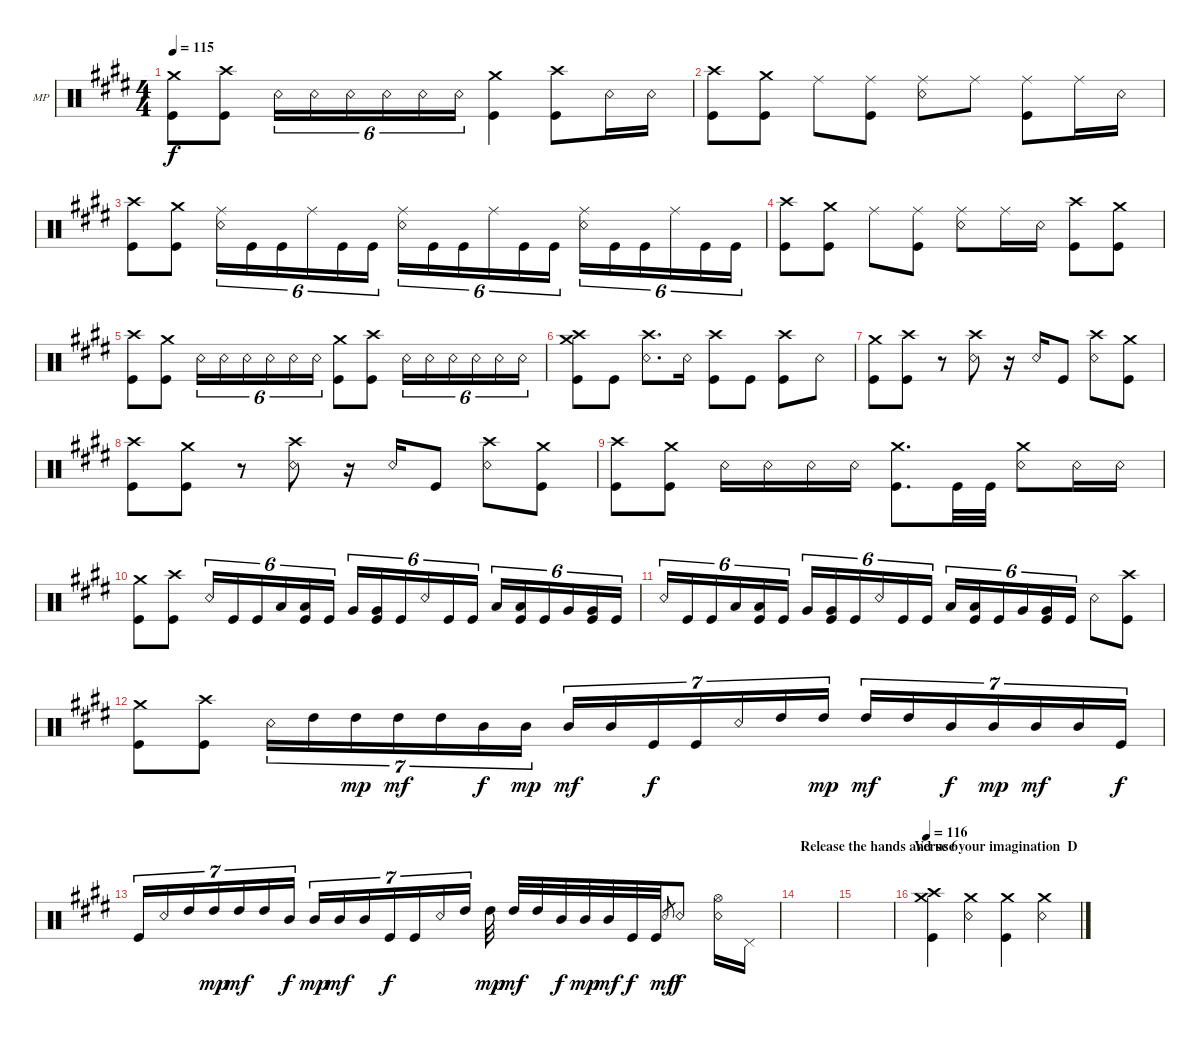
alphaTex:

\defaultSystemsLayout 4
\bracketExtendMode groupsimilarinstruments
\firstSystemTrackNameOrientation horizontal
\otherSystemsTrackNameOrientation horizontal
\track ("Mike Portnoy" "MP") {instrument percussion}
\staff {score}
\articulation defaults
\ts (4 4)
\tempo 115
\clef neutral
\ks e
("Crash medium (hit)" "Kick (hit)").8{dy f} ("Crash high (hit)" "Kick (hit)").8 "Snare (rim shot)".16{tu (6 4)} "Snare (rim shot)".16{tu (6 4)} "Snare (rim shot)".16{tu (6 4)} "Snare (rim shot)".16{tu (6 4)} "Snare (rim shot)".16{tu (6 4)} "Snare (rim shot)".16{tu (6 4)} ("Crash medium (hit)" "Kick (hit)").4 ("Crash high (hit)" "Kick (hit)").8 "Snare (rim shot)".16 "Snare (rim shot)".16 |
("Crash high (hit)" "Kick (hit)").8 ("Crash medium (hit)" "Kick (hit)").8 "Ride (middle)".8 ("Ride (middle)" "Kick (hit)").8 ("Ride (middle)" "Snare (rim shot)").8 "Ride (middle)".8 ("Ride (middle)" "Kick (hit)").8 "Ride (middle)".16 "Snare (rim shot)".16 |
("Crash high (hit)" "Kick (hit)").8 ("Crash medium (hit)" "Kick (hit)").8 ("Ride (middle)" "Snare (rim shot)").16{tu (6 4)} "Kick (hit)".16{tu (6 4)} "Kick (hit)".16{tu (6 4)} "Ride (middle)".16{tu (6 4)} "Kick (hit)".16{tu (6 4)} "Kick (hit)".16{tu (6 4)} ("Ride (middle)" "Snare (rim shot)").16{tu (6 4)} "Kick (hit)".16{tu (6 4)} "Kick (hit)".16{tu (6 4)} "Ride (middle)".16{tu (6 4)} "Kick (hit)".16{tu (6 4)} "Kick (hit)".16{tu (6 4)} ("Ride (middle)" "Snare (rim shot)").16{tu (6 4)} "Kick (hit)".16{tu (6 4)} "Kick (hit)".16{tu (6 4)} "Ride (middle)".16{tu (6 4)} "Kick (hit)".16{tu (6 4)} "Kick (hit)".16{tu (6 4)} |
("Crash high (hit)" "Kick (hit)").8 ("Crash medium (hit)" "Kick (hit)").8 "Ride (middle)".8 ("Ride (middle)" "Kick (hit)").8 ("Ride (middle)" "Snare (rim shot)").8 "Ride (middle)".16 "Snare (rim shot)".16 ("Crash high (hit)" "Kick (hit)").8 ("Crash medium (hit)" "Kick (hit)").8 |
("Crash high (hit)" "Kick (hit)").8 ("Crash medium (hit)" "Kick (hit)").8 "Snare (rim shot)".16{tu (6 4)} "Snare (rim shot)".16{tu (6 4)} "Snare (rim shot)".16{tu (6 4)} "Snare (rim shot)".16{tu (6 4)} "Snare (rim shot)".16{tu (6 4)} "Snare (rim shot)".16{tu (6 4)} ("Crash medium (hit)" "Kick (hit)").8 ("Crash high (hit)" "Kick (hit)").8 "Snare (rim shot)".16{tu (6 4)} "Snare (rim shot)".16{tu (6 4)} "Snare (rim shot)".16{tu (6 4)} "Snare (rim shot)".16{tu (6 4)} "Snare (rim shot)".16{tu (6 4)} "Snare (rim shot)".16{tu (6 4)} |
("Crash high (hit)" "Crash medium (hit)" "Kick (hit)").8 "Kick (hit)".8 ("Crash high (hit)" "Snare (rim shot)").8{d} "Snare (rim shot)".16 ("Crash high (hit)" "Kick (hit)").8 "Kick (hit)".8 ("Crash high (hit)" "Kick (hit)").8 "Snare (rim shot)".8 |
("Crash medium (hit)" "Kick (hit)").8 ("Crash high (hit)" "Kick (hit)").8 r.8 ("Crash high (hit)" "Snare (rim shot)").8 r.16 "Snare (rim shot)".16 "Kick (hit)".8 ("Crash high (hit)" "Snare (rim shot)").8 ("Crash medium (hit)" "Kick (hit)").8 |
("Crash high (hit)" "Kick (hit)").8 ("Crash medium (hit)" "Kick (hit)").8 r.8 ("Crash high (hit)" "Snare (rim shot)").8 r.16 "Snare (rim shot)".16 "Kick (hit)".8 ("Crash high (hit)" "Snare (rim shot)").8 ("Crash medium (hit)" "Kick (hit)").8 |
("Crash high (hit)" "Kick (hit)").8 ("Crash medium (hit)" "Kick (hit)").8 "Snare (rim shot)".16 "Snare (rim shot)".16 "Snare (rim shot)".16 "Snare (rim shot)".16 ("Crash medium (hit)" "Kick (hit)").8{d} "Kick (hit)".32 "Kick (hit)".32 ("Crash medium (hit)" "Snare (rim shot)").8 "Snare (rim shot)".16 "Snare (rim shot)".16 |
("Crash medium (hit)" "Kick (hit)").8 ("Crash high (hit)" "Kick (hit)").8 "Snare (rim shot)".16{tu (6 4)} "Kick (hit)".16{tu (6 4)} "Kick (hit)".16{tu (6 4)} "Low Tom (hit)".16{tu (6 4)} ("Low Tom (hit)" "Kick (hit)").16{tu (6 4)} "Kick (hit)".16{tu (6 4)} "Very Low Tom (hit)".16{tu (6 4)} ("Very Low Tom (hit)" "Kick (hit)").16{tu (6 4)} "Kick (hit)".16{tu (6 4)} "Snare (rim shot)".16{tu (6 4)} "Kick (hit)".16{tu (6 4)} "Kick (hit)".16{tu (6 4)} "Low Tom (hit)".16{tu (6 4)} ("Low Tom (hit)" "Kick (hit)").16{tu (6 4)} "Kick (hit)".16{tu (6 4)} "Very Low Tom (hit)".16{tu (6 4)} ("Very Low Tom (hit)" "Kick (hit)").16{tu (6 4)} "Kick (hit)".16{tu (6 4)} |
"Snare (rim shot)".16{tu (6 4)} "Kick (hit)".16{tu (6 4)} "Kick (hit)".16{tu (6 4)} "Low Tom (hit)".16{tu (6 4)} ("Low Tom (hit)" "Kick (hit)").16{tu (6 4)} "Kick (hit)".16{tu (6 4)} "Very Low Tom (hit)".16{tu (6 4)} ("Very Low Tom (hit)" "Kick (hit)").16{tu (6 4)} "Kick (hit)".16{tu (6 4)} "Snare (rim shot)".16{tu (6 4)} "Kick (hit)".16{tu (6 4)} "Kick (hit)".16{tu (6 4)} "Low Tom (hit)".16{tu (6 4)} ("Low Tom (hit)" "Kick (hit)").16{tu (6 4)} "Kick (hit)".16{tu (6 4)} "Very Low Tom (hit)".16{tu (6 4)} ("Very Low Tom (hit)" "Kick (hit)").16{tu (6 4)} "Kick (hit)".16{tu (6 4)} "Snare (rim shot)".8 ("Crash high (hit)" "Kick (hit)").8 |
("Crash medium (hit)" "Kick (hit)").8 ("Crash high (hit)" "Kick (hit)").8 "Snare (rim shot)".16{tu (7 4)} "High Tom (hit)".16{tu (7 4)} "High Tom (hit)".16{tu (7 4) dy mp} "High Tom (hit)".16{tu (7 4) dy mf} "High Tom (hit)".16{tu (7 4)} "Mid Tom (hit)".16{tu (7 4) dy f} "Mid Tom (hit)".16{tu (7 4) dy mp} "Mid Tom (hit)".16{tu (7 4) dy mf} "Mid Tom (hit)".16{tu (7 4)} "Kick (hit)".16{tu (7 4) dy f} "Kick (hit)".16{tu (7 4)} "Snare (rim shot)".16{tu (7 4)} "High Tom (hit)".16{tu (7 4)} "High Tom (hit)".16{tu (7 4) dy mp} "High Tom (hit)".16{tu (7 4) dy mf} "High Tom (hit)".16{tu (7 4)} "Mid Tom (hit)".16{tu (7 4) dy f} "Mid Tom (hit)".16{tu (7 4) dy mp} "Mid Tom (hit)".16{tu (7 4) dy mf} "Mid Tom (hit)".16{tu (7 4)} "Kick (hit)".16{tu (7 4) dy f} |
"Kick (hit)".16{tu (7 4)} "Snare (rim shot)".16{tu (7 4)} "High Tom (hit)".16{tu (7 4)} "High Tom (hit)".16{tu (7 4) dy mp} "High Tom (hit)".16{tu (7 4) dy mf} "High Tom (hit)".16{tu (7 4)} "Mid Tom (hit)".16{tu (7 4) dy f} "Mid Tom (hit)".16{tu (7 4) dy mp} "Mid Tom (hit)".16{tu (7 4) dy mf} "Mid Tom (hit)".16{tu (7 4)} "Kick (hit)".16{tu (7 4) dy f} "Kick (hit)".16{tu (7 4)} "Snare (rim shot)".16{tu (7 4)} "High Tom (hit)".16{tu (7 4)} "High Tom (hit)".32{dy mp} "High Tom (hit)".32{dy mf} "High Tom (hit)".32 "Mid Tom (hit)".32{dy f} "Mid Tom (hit)".32{dy mp} "Mid Tom (hit)".32{dy mf} "Kick (hit)".32{dy f} "Kick (hit)".32 "Snare (rim shot)".8{gr dy mf} "Snare (rim shot)".8{dy f} ("Hi-Hat (open)" "Snare (rim shot)").16 "Pedal Hi-Hat (hit)".16 |
\section ("" "Release the hands and use your imagination  D")
|
|
\section ("" "Verse 6")
\tempo 116
("Crash medium (hit)" "Crash high (hit)" "Kick (hit)").4 ("Crash medium (hit)" "Snare (rim shot)").4 ("Crash medium (hit)" "Kick (hit)").4 ("Crash medium (hit)" "Snare (rim shot)").4
